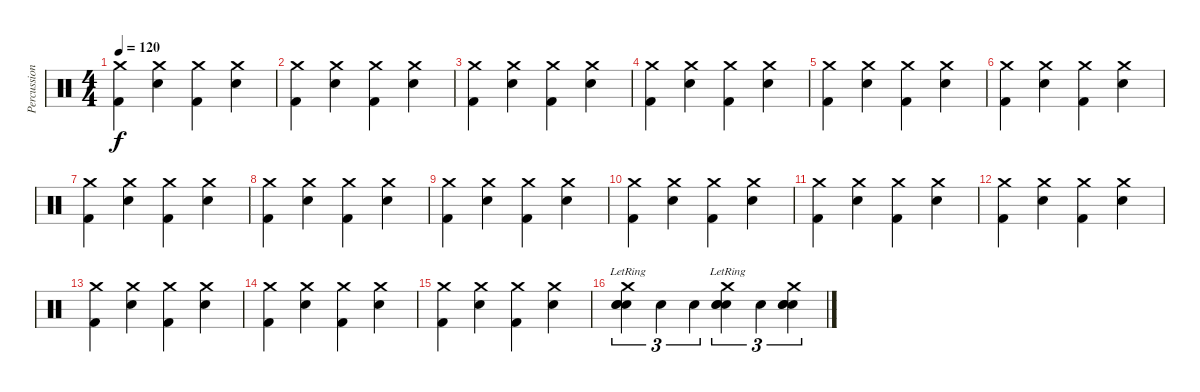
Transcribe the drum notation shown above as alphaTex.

\track ("Percussion" "Percussion") {instrument percussion}
\staff {score}
\articulation defaults
\ts (4 4)
\tempo 120
\clef neutral
\ks c
("Crash medium (hit)" "Kick (hit) 2").4{dy f} ("Crash medium (hit)" "Snare (hit) 2").4 ("Crash medium (hit)" "Kick (hit) 2").4 ("Crash medium (hit)" "Snare (hit) 2").4 |
("Crash medium (hit)" "Kick (hit) 2").4 ("Crash medium (hit)" "Snare (hit) 2").4 ("Crash medium (hit)" "Kick (hit) 2").4 ("Crash medium (hit)" "Snare (hit) 2").4 |
("Crash medium (hit)" "Kick (hit) 2").4 ("Crash medium (hit)" "Snare (hit) 2").4 ("Crash medium (hit)" "Kick (hit) 2").4 ("Crash medium (hit)" "Snare (hit) 2").4 |
("Crash medium (hit)" "Kick (hit) 2").4 ("Crash medium (hit)" "Snare (hit) 2").4 ("Crash medium (hit)" "Kick (hit) 2").4 ("Crash medium (hit)" "Snare (hit) 2").4 |
("Crash medium (hit)" "Kick (hit) 2").4 ("Crash medium (hit)" "Snare (hit) 2").4 ("Crash medium (hit)" "Kick (hit) 2").4 ("Crash medium (hit)" "Snare (hit) 2").4 |
("Crash medium (hit)" "Kick (hit) 2").4 ("Crash medium (hit)" "Snare (hit) 2").4 ("Crash medium (hit)" "Kick (hit) 2").4 ("Crash medium (hit)" "Snare (hit) 2").4 |
("Crash medium (hit)" "Kick (hit) 2").4 ("Crash medium (hit)" "Snare (hit) 2").4 ("Crash medium (hit)" "Kick (hit) 2").4 ("Crash medium (hit)" "Snare (hit) 2").4 |
("Crash medium (hit)" "Kick (hit) 2").4 ("Crash medium (hit)" "Snare (hit) 2").4 ("Crash medium (hit)" "Kick (hit) 2").4 ("Crash medium (hit)" "Snare (hit) 2").4 |
("Crash medium (hit)" "Kick (hit) 2").4 ("Crash medium (hit)" "Snare (hit) 2").4 ("Crash medium (hit)" "Kick (hit) 2").4 ("Crash medium (hit)" "Snare (hit) 2").4 |
("Crash medium (hit)" "Kick (hit) 2").4 ("Crash medium (hit)" "Snare (hit) 2").4 ("Crash medium (hit)" "Kick (hit) 2").4 ("Crash medium (hit)" "Snare (hit) 2").4 |
("Crash medium (hit)" "Kick (hit) 2").4 ("Crash medium (hit)" "Snare (hit) 2").4 ("Crash medium (hit)" "Kick (hit) 2").4 ("Crash medium (hit)" "Snare (hit) 2").4 |
("Crash medium (hit)" "Kick (hit) 2").4 ("Crash medium (hit)" "Snare (hit) 2").4 ("Crash medium (hit)" "Kick (hit) 2").4 ("Crash medium (hit)" "Snare (hit) 2").4 |
("Crash medium (hit)" "Kick (hit) 2").4 ("Crash medium (hit)" "Snare (hit) 2").4 ("Crash medium (hit)" "Kick (hit) 2").4 ("Crash medium (hit)" "Snare (hit) 2").4 |
("Crash medium (hit)" "Kick (hit) 2").4 ("Crash medium (hit)" "Snare (hit) 2").4 ("Crash medium (hit)" "Kick (hit) 2").4 ("Crash medium (hit)" "Snare (hit) 2").4 |
("Crash medium (hit)" "Kick (hit) 2").4 ("Crash medium (hit)" "Snare (hit) 2").4 ("Crash medium (hit)" "Kick (hit) 2").4 ("Crash medium (hit)" "Snare (hit) 2").4 |
("Crash medium (hit)"{lr} "Snare (hit) 2" "Snare (hit) 2" "Snare (hit) 2").4{tu (3 2)} "Snare (hit) 2".4{tu (3 2)} "Snare (hit) 2".4{tu (3 2)} ("Crash medium (hit)"{lr} "Snare (hit) 2" "Snare (hit) 2" "Snare (hit) 2").4{tu (3 2)} "Snare (hit) 2".4{tu (3 2)} ("Crash medium (hit)" "Snare (hit) 2" "Snare (hit) 2" "Snare (hit) 2").4{tu (3 2)}
